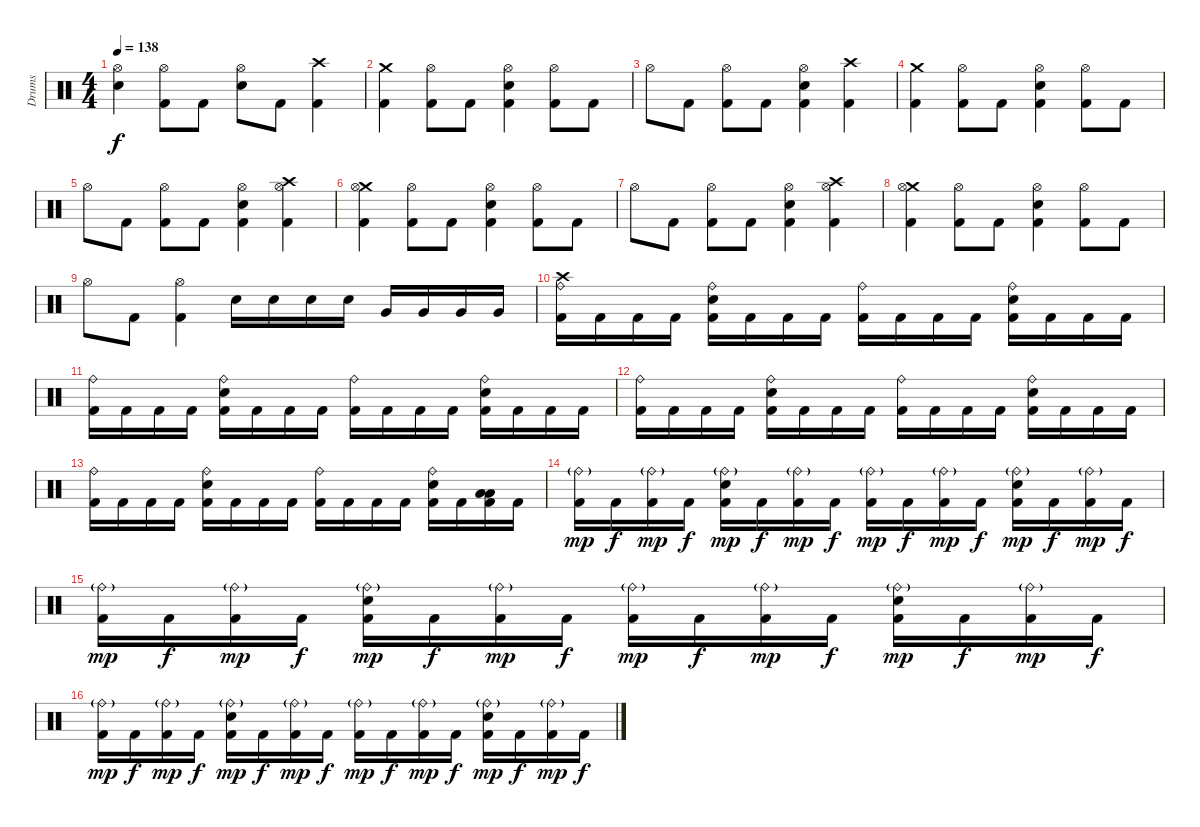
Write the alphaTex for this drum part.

\track ("Drums" "Drums") {instrument percussion}
\staff {score}
\articulation defaults
\ts (4 4)
\tempo 138
\clef neutral
\ks c
("Hi-Hat (open)" "Electric Snare (hit)").4{dy f} ("Hi-Hat (open)" "Kick (hit) 2").8 "Kick (hit) 2".8 ("Hi-Hat (open)" "Electric Snare (hit)").8 "Kick (hit) 2".8 ("Crash high (hit)" "Kick (hit) 2").4 |
("Crash medium (hit)" "Kick (hit) 2").4 ("Hi-Hat (open)" "Kick (hit) 2").8 "Kick (hit) 2".8 ("Hi-Hat (open)" "Electric Snare (hit)" "Kick (hit) 2").4 ("Hi-Hat (open)" "Kick (hit) 2").8 "Kick (hit) 2".8 |
"Hi-Hat (open)".8 "Kick (hit) 2".8 ("Hi-Hat (open)" "Kick (hit) 2").8 "Kick (hit) 2".8 ("Hi-Hat (open)" "Electric Snare (hit)" "Kick (hit) 2").4 ("Crash high (hit)" "Kick (hit) 2").4 |
("Crash medium (hit)" "Kick (hit) 2").4 ("Hi-Hat (open)" "Kick (hit) 2").8 "Kick (hit) 2".8 ("Hi-Hat (open)" "Electric Snare (hit)" "Kick (hit) 2").4 ("Hi-Hat (open)" "Kick (hit) 2").8 "Kick (hit) 2".8 |
"Hi-Hat (open)".8 "Kick (hit) 2".8 ("Hi-Hat (open)" "Kick (hit) 2").8 "Kick (hit) 2".8 ("Hi-Hat (open)" "Electric Snare (hit)" "Kick (hit) 2").4 ("Crash high (hit)" "Hi-Hat (open)" "Kick (hit) 2").4 |
("Crash medium (hit)" "Hi-Hat (open)" "Kick (hit) 2").4 ("Hi-Hat (open)" "Kick (hit) 2").8 "Kick (hit) 2".8 ("Hi-Hat (open)" "Electric Snare (hit)" "Kick (hit) 2").4 ("Hi-Hat (open)" "Kick (hit) 2").8 "Kick (hit) 2".8 |
"Hi-Hat (open)".8 "Kick (hit) 2".8 ("Hi-Hat (open)" "Kick (hit) 2").8 "Kick (hit) 2".8 ("Hi-Hat (open)" "Electric Snare (hit)" "Kick (hit) 2").4 ("Crash high (hit)" "Hi-Hat (open)" "Kick (hit) 2").4 |
("Crash medium (hit)" "Hi-Hat (open)" "Kick (hit) 2").4 ("Hi-Hat (open)" "Kick (hit) 2").8 "Kick (hit) 2".8 ("Hi-Hat (open)" "Electric Snare (hit)" "Kick (hit) 2").4 ("Hi-Hat (open)" "Kick (hit) 2").8 "Kick (hit) 2".8 |
"Hi-Hat (open)".8 "Kick (hit) 2".8 ("Hi-Hat (open)" "Kick (hit) 2").4 "Electric Snare (hit)".16 "Electric Snare (hit)".16 "Electric Snare (hit)".16 "Electric Snare (hit)".16 "Very Low Tom (hit)".16 "Very Low Tom (hit)".16 "Very Low Tom (hit)".16 "Very Low Tom (hit)".16 |
("Crash high (hit)" "Ride (bell)" "Kick (hit) 2").16 "Kick (hit) 2".16 "Kick (hit) 2".16 "Kick (hit) 2".16 ("Ride (bell)" "Electric Snare (hit)" "Kick (hit) 2").16 "Kick (hit) 2".16 "Kick (hit) 2".16 "Kick (hit) 2".16 ("Ride (bell)" "Kick (hit) 2").16 "Kick (hit) 2".16 "Kick (hit) 2".16 "Kick (hit) 2".16 ("Ride (bell)" "Electric Snare (hit)" "Kick (hit) 2").16 "Kick (hit) 2".16 "Kick (hit) 2".16 "Kick (hit) 2".16 |
("Ride (bell)" "Kick (hit) 2").16 "Kick (hit) 2".16 "Kick (hit) 2".16 "Kick (hit) 2".16 ("Ride (bell)" "Electric Snare (hit)" "Kick (hit) 2").16 "Kick (hit) 2".16 "Kick (hit) 2".16 "Kick (hit) 2".16 ("Ride (bell)" "Kick (hit) 2").16 "Kick (hit) 2".16 "Kick (hit) 2".16 "Kick (hit) 2".16 ("Ride (bell)" "Electric Snare (hit)" "Kick (hit) 2").16 "Kick (hit) 2".16 "Kick (hit) 2".16 "Kick (hit) 2".16 |
("Ride (bell)" "Kick (hit) 2").16 "Kick (hit) 2".16 "Kick (hit) 2".16 "Kick (hit) 2".16 ("Ride (bell)" "Electric Snare (hit)" "Kick (hit) 2").16 "Kick (hit) 2".16 "Kick (hit) 2".16 "Kick (hit) 2".16 ("Ride (bell)" "Kick (hit) 2").16 "Kick (hit) 2".16 "Kick (hit) 2".16 "Kick (hit) 2".16 ("Ride (bell)" "Electric Snare (hit)" "Kick (hit) 2").16 "Kick (hit) 2".16 "Kick (hit) 2".16 "Kick (hit) 2".16 |
("Ride (bell)" "Kick (hit) 2").16 "Kick (hit) 2".16 "Kick (hit) 2".16 "Kick (hit) 2".16 ("Ride (bell)" "Electric Snare (hit)" "Kick (hit) 2").16 "Kick (hit) 2".16 "Kick (hit) 2".16 "Kick (hit) 2".16 ("Ride (bell)" "Kick (hit) 2").16 "Kick (hit) 2".16 "Kick (hit) 2".16 "Kick (hit) 2".16 ("Ride (bell)" "Electric Snare (hit)" "Kick (hit) 2").16 "Kick (hit) 2".16 ("Low Floor Tom (hit)" "Low Floor Tom (hit)" "Kick (hit) 2").16 "Kick (hit) 2".16 |
("Ride (bell)"{g} "Kick (hit) 2").16{dy mp} "Kick (hit) 2".16{dy f} ("Ride (bell)"{g} "Kick (hit) 2").16{dy mp} "Kick (hit) 2".16{dy f} ("Ride (bell)"{g} "Electric Snare (hit)" "Kick (hit) 2").16{dy mp} "Kick (hit) 2".16{dy f} ("Ride (bell)"{g} "Kick (hit) 2").16{dy mp} "Kick (hit) 2".16{dy f} ("Ride (bell)"{g} "Kick (hit) 2").16{dy mp} "Kick (hit) 2".16{dy f} ("Ride (bell)"{g} "Kick (hit) 2").16{dy mp} "Kick (hit) 2".16{dy f} ("Ride (bell)"{g} "Electric Snare (hit)" "Kick (hit) 2").16{dy mp} "Kick (hit) 2".16{dy f} ("Ride (bell)"{g} "Kick (hit) 2").16{dy mp} "Kick (hit) 2".16{dy f} |
("Ride (bell)"{g} "Kick (hit) 2").16{dy mp} "Kick (hit) 2".16{dy f} ("Ride (bell)"{g} "Kick (hit) 2").16{dy mp} "Kick (hit) 2".16{dy f} ("Ride (bell)"{g} "Electric Snare (hit)" "Kick (hit) 2").16{dy mp} "Kick (hit) 2".16{dy f} ("Ride (bell)"{g} "Kick (hit) 2").16{dy mp} "Kick (hit) 2".16{dy f} ("Ride (bell)"{g} "Kick (hit) 2").16{dy mp} "Kick (hit) 2".16{dy f} ("Ride (bell)"{g} "Kick (hit) 2").16{dy mp} "Kick (hit) 2".16{dy f} ("Ride (bell)"{g} "Electric Snare (hit)" "Kick (hit) 2").16{dy mp} "Kick (hit) 2".16{dy f} ("Ride (bell)"{g} "Kick (hit) 2").16{dy mp} "Kick (hit) 2".16{dy f} |
("Ride (bell)"{g} "Kick (hit) 2").16{dy mp} "Kick (hit) 2".16{dy f} ("Ride (bell)"{g} "Kick (hit) 2").16{dy mp} "Kick (hit) 2".16{dy f} ("Ride (bell)"{g} "Electric Snare (hit)" "Kick (hit) 2").16{dy mp} "Kick (hit) 2".16{dy f} ("Ride (bell)"{g} "Kick (hit) 2").16{dy mp} "Kick (hit) 2".16{dy f} ("Ride (bell)"{g} "Kick (hit) 2").16{dy mp} "Kick (hit) 2".16{dy f} ("Ride (bell)"{g} "Kick (hit) 2").16{dy mp} "Kick (hit) 2".16{dy f} ("Ride (bell)"{g} "Electric Snare (hit)" "Kick (hit) 2").16{dy mp} "Kick (hit) 2".16{dy f} ("Ride (bell)"{g} "Kick (hit) 2").16{dy mp} "Kick (hit) 2".16{dy f}
